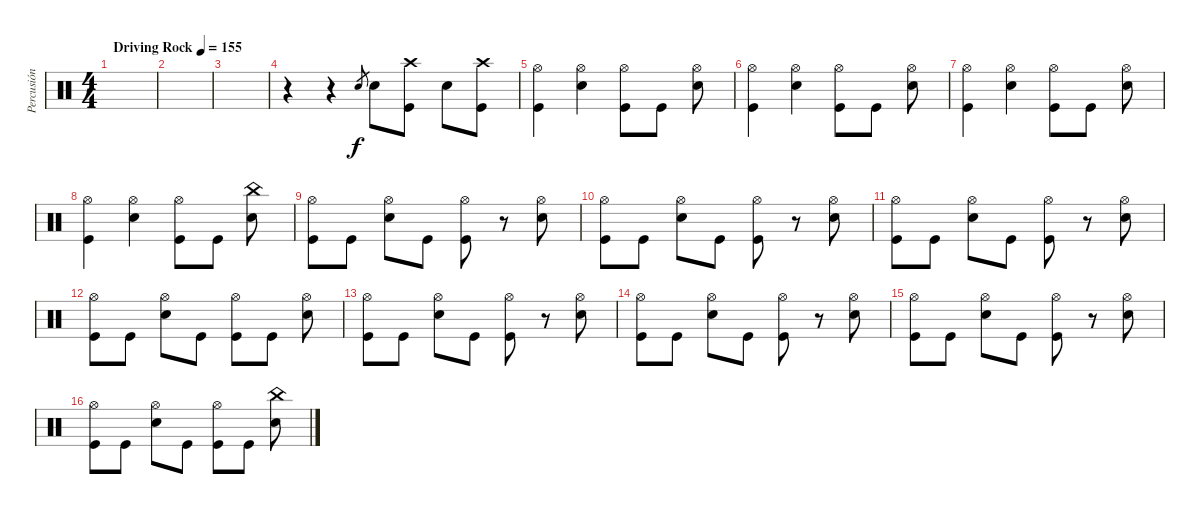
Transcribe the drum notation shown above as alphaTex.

\track ("Percusión" "Percusión") {instrument percussion}
\staff {score}
\articulation defaults
\ts (4 4)
\tempo (155 "Driving Rock")
\clef neutral
\ks c
|
|
|
r.4 r.4 "Snare (hit) 2".8{gr} "Snare (hit) 2".8 ("Kick (hit)" "Crash high (hit)").8 "Snare (hit) 2".8 ("Crash high (hit)" "Kick (hit)").8 |
("Kick (hit)" "Hi-Hat (open)").4 ("Snare (hit) 2" "Hi-Hat (open)").4 ("Kick (hit)" "Hi-Hat (open)").8 "Kick (hit)".8 ("Snare (hit) 2" "Hi-Hat (open)").8 |
("Kick (hit)" "Hi-Hat (open)").4 ("Snare (hit) 2" "Hi-Hat (open)").4 ("Kick (hit)" "Hi-Hat (open)").8 "Kick (hit)".8 ("Snare (hit) 2" "Hi-Hat (open)").8 |
("Kick (hit)" "Hi-Hat (open)").4 ("Snare (hit) 2" "Hi-Hat (open)").4 ("Kick (hit)" "Hi-Hat (open)").8 "Kick (hit)".8 ("Snare (hit) 2" "Hi-Hat (open)").8 |
("Kick (hit)" "Hi-Hat (open)").4 ("Snare (hit) 2" "Hi-Hat (open)").4 ("Kick (hit)" "Hi-Hat (open)").8 "Kick (hit)".8 ("Snare (hit) 2" "China (hit)").8 |
("Kick (hit)" "Hi-Hat (open)").8 "Kick (hit)".8 ("Snare (hit) 2" "Hi-Hat (open)").8 "Kick (hit)".8 ("Kick (hit)" "Hi-Hat (open)").8 r.8 ("Snare (hit) 2" "Hi-Hat (open)").8 |
("Kick (hit)" "Hi-Hat (open)").8 "Kick (hit)".8 ("Snare (hit) 2" "Hi-Hat (open)").8 "Kick (hit)".8 ("Kick (hit)" "Hi-Hat (open)").8 r.8 ("Snare (hit) 2" "Hi-Hat (open)").8 |
("Kick (hit)" "Hi-Hat (open)").8 "Kick (hit)".8 ("Snare (hit) 2" "Hi-Hat (open)").8 "Kick (hit)".8 ("Kick (hit)" "Hi-Hat (open)").8 r.8 ("Snare (hit) 2" "Hi-Hat (open)").8 |
("Kick (hit)" "Hi-Hat (open)").8 "Kick (hit)".8 ("Snare (hit) 2" "Hi-Hat (open)").8 "Kick (hit)".8 ("Kick (hit)" "Hi-Hat (open)").8 "Kick (hit)".8 ("Snare (hit) 2" "Hi-Hat (open)").8 |
("Kick (hit)" "Hi-Hat (open)").8 "Kick (hit)".8 ("Snare (hit) 2" "Hi-Hat (open)").8 "Kick (hit)".8 ("Kick (hit)" "Hi-Hat (open)").8 r.8 ("Snare (hit) 2" "Hi-Hat (open)").8 |
("Kick (hit)" "Hi-Hat (open)").8 "Kick (hit)".8 ("Snare (hit) 2" "Hi-Hat (open)").8 "Kick (hit)".8 ("Kick (hit)" "Hi-Hat (open)").8 r.8 ("Snare (hit) 2" "Hi-Hat (open)").8 |
("Kick (hit)" "Hi-Hat (open)").8 "Kick (hit)".8 ("Snare (hit) 2" "Hi-Hat (open)").8 "Kick (hit)".8 ("Kick (hit)" "Hi-Hat (open)").8 r.8 ("Snare (hit) 2" "Hi-Hat (open)").8 |
("Kick (hit)" "Hi-Hat (open)").8 "Kick (hit)".8 ("Snare (hit) 2" "Hi-Hat (open)").8 "Kick (hit)".8 ("Kick (hit)" "Hi-Hat (open)").8 "Kick (hit)".8 ("Snare (hit) 2" "China (hit)").8
